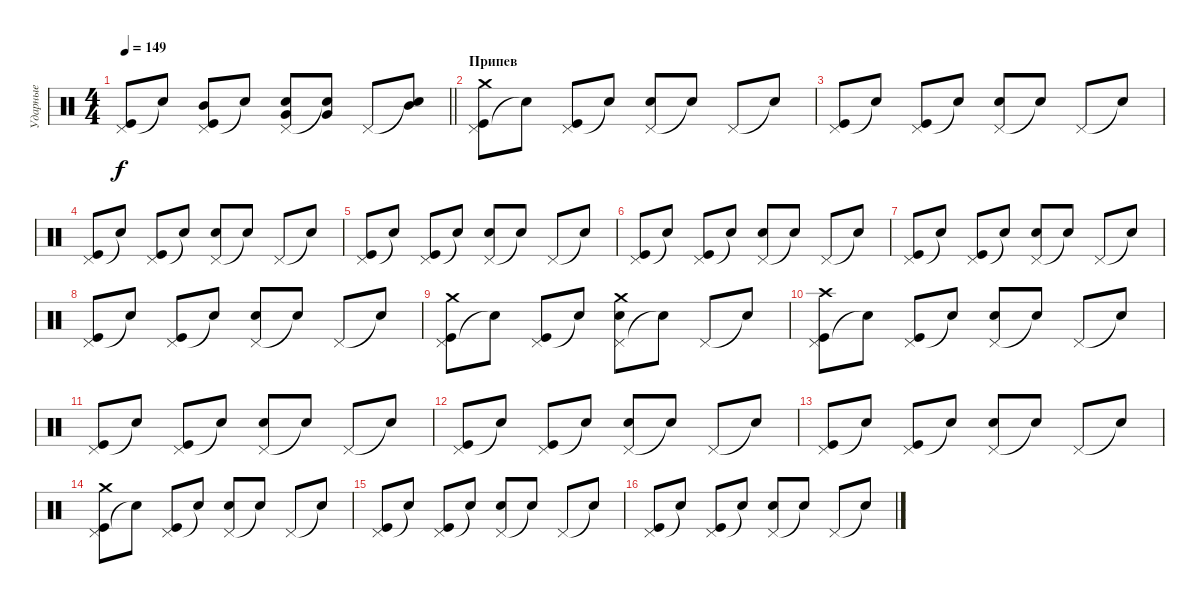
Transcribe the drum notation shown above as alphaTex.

\track ("Ударные" "Ударные") {instrument percussion}
\staff {score}
\articulation defaults
\ts (4 4)
\tempo 149
\clef neutral
\barLineRight lightlight
\ks c
("Pedal Hi-Hat (hit)" "Kick (hit)").8{dy f} "Snare (hit)"{t}.8 ("Pedal Hi-Hat (hit)" "Kick (hit)" "Mid Tom (hit)").8 "Snare (hit)"{t}.8 ("Pedal Hi-Hat (hit)" "Snare (hit) 2" "Very Low Tom (hit)").8 ("Snare (hit)"{t} "Very Low Tom (hit)").8 "Pedal Hi-Hat (hit)".8 ("Snare (hit)"{t} "Mid Tom (hit)").8 |
\section ("" "Припев")
("Pedal Hi-Hat (hit)" "Kick (hit)" "Crash medium (hit)").8 "Snare (hit)"{t}.8 ("Pedal Hi-Hat (hit)" "Kick (hit)").8 "Snare (hit)"{t}.8 ("Pedal Hi-Hat (hit)" "Snare (hit) 2").8 "Snare (hit)"{t}.8 "Pedal Hi-Hat (hit)".8 "Snare (hit)"{t}.8 |
("Pedal Hi-Hat (hit)" "Kick (hit)").8 "Snare (hit)"{t}.8 ("Pedal Hi-Hat (hit)" "Kick (hit)").8 "Snare (hit)"{t}.8 ("Pedal Hi-Hat (hit)" "Snare (hit) 2").8 "Snare (hit)"{t}.8 "Pedal Hi-Hat (hit)".8 "Snare (hit)"{t}.8 |
("Pedal Hi-Hat (hit)" "Kick (hit)").8 "Snare (hit)"{t}.8 ("Pedal Hi-Hat (hit)" "Kick (hit)").8 "Snare (hit)"{t}.8 ("Pedal Hi-Hat (hit)" "Snare (hit) 2").8 "Snare (hit)"{t}.8 "Pedal Hi-Hat (hit)".8 "Snare (hit)"{t}.8 |
("Pedal Hi-Hat (hit)" "Kick (hit)").8 "Snare (hit)"{t}.8 ("Pedal Hi-Hat (hit)" "Kick (hit)").8 "Snare (hit)"{t}.8 ("Pedal Hi-Hat (hit)" "Snare (hit) 2").8 "Snare (hit)"{t}.8 "Pedal Hi-Hat (hit)".8 "Snare (hit)"{t}.8 |
("Pedal Hi-Hat (hit)" "Kick (hit)").8 "Snare (hit)"{t}.8 ("Pedal Hi-Hat (hit)" "Kick (hit)").8 "Snare (hit)"{t}.8 ("Pedal Hi-Hat (hit)" "Snare (hit) 2").8 "Snare (hit)"{t}.8 "Pedal Hi-Hat (hit)".8 "Snare (hit)"{t}.8 |
("Pedal Hi-Hat (hit)" "Kick (hit)").8 "Snare (hit)"{t}.8 ("Pedal Hi-Hat (hit)" "Kick (hit)").8 "Snare (hit)"{t}.8 ("Pedal Hi-Hat (hit)" "Snare (hit) 2").8 "Snare (hit)"{t}.8 "Pedal Hi-Hat (hit)".8 "Snare (hit)"{t}.8 |
("Pedal Hi-Hat (hit)" "Kick (hit)").8 "Snare (hit)"{t}.8 ("Pedal Hi-Hat (hit)" "Kick (hit)").8 "Snare (hit)"{t}.8 ("Pedal Hi-Hat (hit)" "Snare (hit) 2").8 "Snare (hit)"{t}.8 "Pedal Hi-Hat (hit)".8 "Snare (hit)"{t}.8 |
("Pedal Hi-Hat (hit)" "Kick (hit)" "Crash medium (hit)").8 "Snare (hit)"{t}.8 ("Pedal Hi-Hat (hit)" "Kick (hit)").8 "Snare (hit)"{t}.8 ("Pedal Hi-Hat (hit)" "Snare (hit) 2" "Crash medium (hit)").8 "Snare (hit)"{t}.8 "Pedal Hi-Hat (hit)".8 "Snare (hit)"{t}.8 |
("Pedal Hi-Hat (hit)" "Kick (hit)" "Crash high (hit)").8 "Snare (hit)"{t}.8 ("Pedal Hi-Hat (hit)" "Kick (hit)").8 "Snare (hit)"{t}.8 ("Pedal Hi-Hat (hit)" "Snare (hit) 2").8 "Snare (hit)"{t}.8 "Pedal Hi-Hat (hit)".8 "Snare (hit)"{t}.8 |
("Pedal Hi-Hat (hit)" "Kick (hit)").8 "Snare (hit)"{t}.8 ("Pedal Hi-Hat (hit)" "Kick (hit)").8 "Snare (hit)"{t}.8 ("Pedal Hi-Hat (hit)" "Snare (hit) 2").8 "Snare (hit)"{t}.8 "Pedal Hi-Hat (hit)".8 "Snare (hit)"{t}.8 |
("Pedal Hi-Hat (hit)" "Kick (hit)").8 "Snare (hit)"{t}.8 ("Pedal Hi-Hat (hit)" "Kick (hit)").8 "Snare (hit)"{t}.8 ("Pedal Hi-Hat (hit)" "Snare (hit) 2").8 "Snare (hit)"{t}.8 "Pedal Hi-Hat (hit)".8 "Snare (hit)"{t}.8 |
("Pedal Hi-Hat (hit)" "Kick (hit)").8 "Snare (hit)"{t}.8 ("Pedal Hi-Hat (hit)" "Kick (hit)").8 "Snare (hit)"{t}.8 ("Pedal Hi-Hat (hit)" "Snare (hit) 2").8 "Snare (hit)"{t}.8 "Pedal Hi-Hat (hit)".8 "Snare (hit)"{t}.8 |
("Pedal Hi-Hat (hit)" "Kick (hit)" "Crash medium (hit)").8 "Snare (hit)"{t}.8 ("Pedal Hi-Hat (hit)" "Kick (hit)").8 "Snare (hit)"{t}.8 ("Pedal Hi-Hat (hit)" "Snare (hit) 2").8 "Snare (hit)"{t}.8 "Pedal Hi-Hat (hit)".8 "Snare (hit)"{t}.8 |
("Pedal Hi-Hat (hit)" "Kick (hit)").8 "Snare (hit)"{t}.8 ("Pedal Hi-Hat (hit)" "Kick (hit)").8 "Snare (hit)"{t}.8 ("Pedal Hi-Hat (hit)" "Snare (hit) 2").8 "Snare (hit)"{t}.8 "Pedal Hi-Hat (hit)".8 "Snare (hit)"{t}.8 |
("Pedal Hi-Hat (hit)" "Kick (hit)").8 "Snare (hit)"{t}.8 ("Pedal Hi-Hat (hit)" "Kick (hit)").8 "Snare (hit)"{t}.8 ("Pedal Hi-Hat (hit)" "Snare (hit) 2").8 "Snare (hit)"{t}.8 "Pedal Hi-Hat (hit)".8 "Snare (hit)"{t}.8
